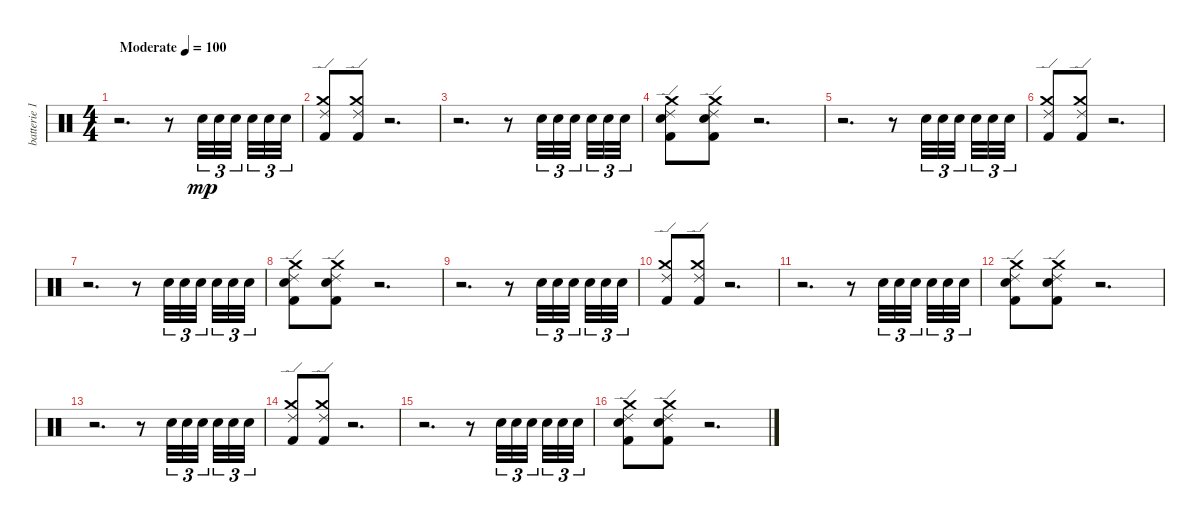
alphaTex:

\track ("batterie 1" "batterie 1") {instrument percussion}
\staff {score}
\articulation defaults
\ts (4 4)
\tempo (100 "Moderate")
\clef neutral
\ks c
r.2{d dy mp} r.8 "Snare (hit) 2".32{tu (3 2)} "Electric Snare (hit)".32{tu (3 2)} "Snare (hit) 2".32{tu (3 2)} "Electric Snare (hit)".32{tu (3 2)} "Snare (hit) 2".32{tu (3 2)} "Electric Snare (hit)".32{tu (3 2)} |
("Kick (hit) 2" "Crash medium (hit)" "Ride (edge) 2").8 ("Kick (hit) 2" "Crash medium (hit)" "Ride (edge) 2").8 r.2{d} |
r.2{d} r.8 "Snare (hit) 2".32{tu (3 2)} "Electric Snare (hit)".32{tu (3 2)} "Snare (hit) 2".32{tu (3 2)} "Electric Snare (hit)".32{tu (3 2)} "Snare (hit) 2".32{tu (3 2)} "Electric Snare (hit)".32{tu (3 2)} |
("Kick (hit) 2" "Electric Snare (hit)" "Crash medium (hit)" "Ride (edge) 2").8 ("Kick (hit) 2" "Electric Snare (hit)" "Crash medium (hit)" "Ride (edge) 2").8 r.2{d} |
r.2{d} r.8 "Snare (hit) 2".32{tu (3 2)} "Electric Snare (hit)".32{tu (3 2)} "Snare (hit) 2".32{tu (3 2)} "Electric Snare (hit)".32{tu (3 2)} "Snare (hit) 2".32{tu (3 2)} "Electric Snare (hit)".32{tu (3 2)} |
("Kick (hit) 2" "Crash medium (hit)" "Ride (edge) 2").8 ("Kick (hit) 2" "Crash medium (hit)" "Ride (edge) 2").8 r.2{d} |
r.2{d} r.8 "Snare (hit) 2".32{tu (3 2)} "Electric Snare (hit)".32{tu (3 2)} "Snare (hit) 2".32{tu (3 2)} "Electric Snare (hit)".32{tu (3 2)} "Snare (hit) 2".32{tu (3 2)} "Electric Snare (hit)".32{tu (3 2)} |
("Kick (hit) 2" "Electric Snare (hit)" "Crash medium (hit)" "Ride (edge) 2").8 ("Kick (hit) 2" "Electric Snare (hit)" "Crash medium (hit)" "Ride (edge) 2").8 r.2{d} |
r.2{d} r.8 "Snare (hit) 2".32{tu (3 2)} "Electric Snare (hit)".32{tu (3 2)} "Snare (hit) 2".32{tu (3 2)} "Electric Snare (hit)".32{tu (3 2)} "Snare (hit) 2".32{tu (3 2)} "Electric Snare (hit)".32{tu (3 2)} |
("Kick (hit) 2" "Crash medium (hit)" "Ride (edge) 2").8 ("Kick (hit) 2" "Crash medium (hit)" "Ride (edge) 2").8 r.2{d} |
r.2{d} r.8 "Snare (hit) 2".32{tu (3 2)} "Electric Snare (hit)".32{tu (3 2)} "Snare (hit) 2".32{tu (3 2)} "Electric Snare (hit)".32{tu (3 2)} "Snare (hit) 2".32{tu (3 2)} "Electric Snare (hit)".32{tu (3 2)} |
("Kick (hit) 2" "Electric Snare (hit)" "Crash medium (hit)" "Ride (edge) 2").8 ("Kick (hit) 2" "Electric Snare (hit)" "Crash medium (hit)" "Ride (edge) 2").8 r.2{d} |
r.2{d} r.8 "Snare (hit) 2".32{tu (3 2)} "Electric Snare (hit)".32{tu (3 2)} "Snare (hit) 2".32{tu (3 2)} "Electric Snare (hit)".32{tu (3 2)} "Snare (hit) 2".32{tu (3 2)} "Electric Snare (hit)".32{tu (3 2)} |
("Kick (hit) 2" "Crash medium (hit)" "Ride (edge) 2").8 ("Kick (hit) 2" "Crash medium (hit)" "Ride (edge) 2").8 r.2{d} |
r.2{d} r.8 "Snare (hit) 2".32{tu (3 2)} "Electric Snare (hit)".32{tu (3 2)} "Snare (hit) 2".32{tu (3 2)} "Electric Snare (hit)".32{tu (3 2)} "Snare (hit) 2".32{tu (3 2)} "Electric Snare (hit)".32{tu (3 2)} |
("Kick (hit) 2" "Electric Snare (hit)" "Crash medium (hit)" "Ride (edge) 2").8 ("Kick (hit) 2" "Electric Snare (hit)" "Crash medium (hit)" "Ride (edge) 2").8 r.2{d}
